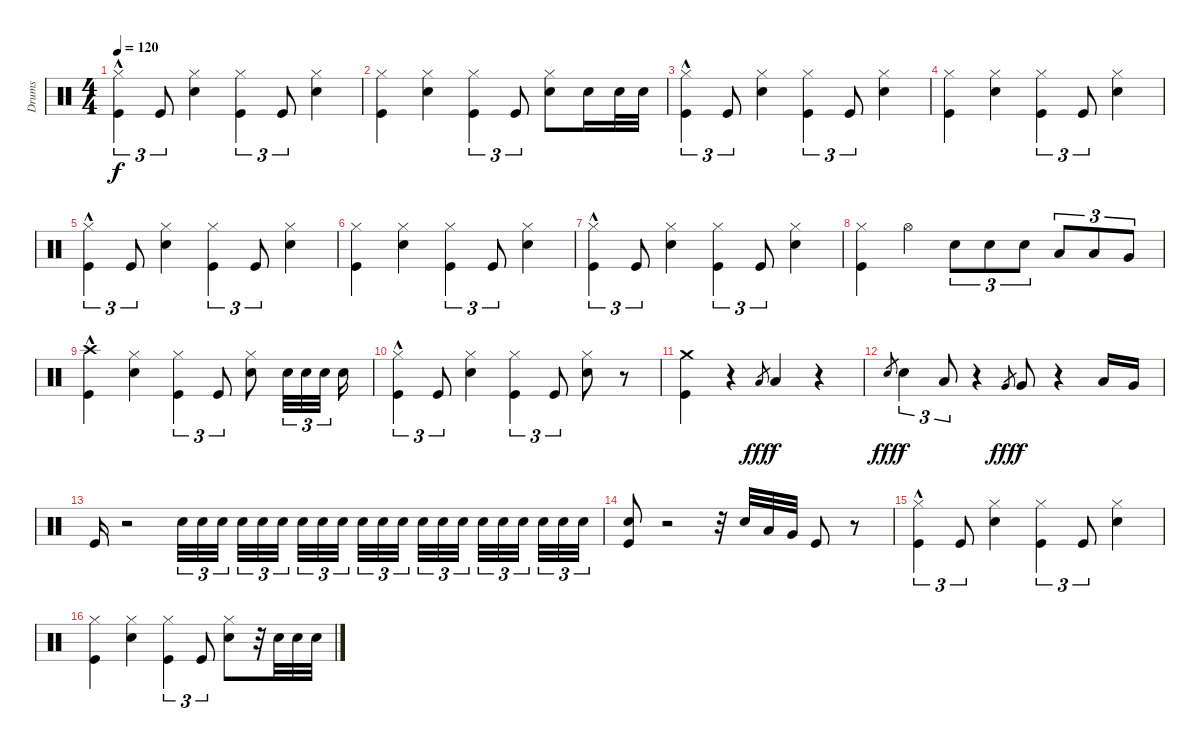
\track ("Drums" "Drums") {instrument percussion}
\staff {score}
\articulation defaults
\ts (4 4)
\tempo 120
\clef neutral
\ks c
("Kick (hit)"{hac} "Hi-Hat (closed)").4{tu (3 2) dy f} "Kick (hit)".8{tu (3 2)} ("Snare (hit) 2" "Hi-Hat (closed)").4 ("Kick (hit)" "Hi-Hat (closed)").4{tu (3 2)} "Kick (hit)".8{tu (3 2)} ("Snare (hit) 2" "Hi-Hat (closed)").4 |
("Kick (hit)" "Hi-Hat (closed)").4 ("Snare (hit) 2" "Hi-Hat (closed)").4 ("Kick (hit)" "Hi-Hat (closed)").4{tu (3 2)} "Kick (hit)".8{tu (3 2)} ("Hi-Hat (closed)" "Snare (hit) 2").8 "Snare (hit) 2".16 "Snare (hit) 2".32 "Snare (hit) 2".32 |
("Kick (hit)"{hac} "Hi-Hat (closed)").4{tu (3 2)} "Kick (hit)".8{tu (3 2)} ("Snare (hit) 2" "Hi-Hat (closed)").4 ("Kick (hit)" "Hi-Hat (closed)").4{tu (3 2)} "Kick (hit)".8{tu (3 2)} ("Snare (hit) 2" "Hi-Hat (closed)").4 |
("Kick (hit)" "Hi-Hat (closed)").4 ("Snare (hit) 2" "Hi-Hat (closed)").4 ("Kick (hit)" "Hi-Hat (closed)").4{tu (3 2)} "Kick (hit)".8{tu (3 2)} ("Snare (hit) 2" "Hi-Hat (closed)").4 |
("Kick (hit)"{hac} "Hi-Hat (closed)").4{tu (3 2)} "Kick (hit)".8{tu (3 2)} ("Snare (hit) 2" "Hi-Hat (closed)").4 ("Kick (hit)" "Hi-Hat (closed)").4{tu (3 2)} "Kick (hit)".8{tu (3 2)} ("Snare (hit) 2" "Hi-Hat (closed)").4 |
("Kick (hit)" "Hi-Hat (closed)").4 ("Snare (hit) 2" "Hi-Hat (closed)").4 ("Kick (hit)" "Hi-Hat (closed)").4{tu (3 2)} "Kick (hit)".8{tu (3 2)} ("Snare (hit) 2" "Hi-Hat (closed)").4 |
("Kick (hit)"{hac} "Hi-Hat (closed)").4{tu (3 2)} "Kick (hit)".8{tu (3 2)} ("Snare (hit) 2" "Hi-Hat (closed)").4 ("Kick (hit)" "Hi-Hat (closed)").4{tu (3 2)} "Kick (hit)".8{tu (3 2)} ("Snare (hit) 2" "Hi-Hat (closed)").4 |
("Kick (hit)" "Hi-Hat (closed)").4 "Hi-Hat (open)".4 "Snare (hit) 2".8{tu (3 2)} "Snare (hit) 2".8{tu (3 2)} "Snare (hit) 2".8{tu (3 2)} "Low Tom (hit)".8{tu (3 2)} "Low Tom (hit)".8{tu (3 2)} "Very Low Tom (hit)".8{tu (3 2)} |
("Kick (hit)"{hac} "Crash high (hit)").4 ("Snare (hit) 2" "Hi-Hat (closed)").4 ("Kick (hit)" "Hi-Hat (closed)").4{tu (3 2)} "Kick (hit)".8{tu (3 2)} ("Snare (hit) 2" "Hi-Hat (closed)").8 "Snare (hit) 2".32{tu (3 2)} "Snare (hit) 2".32{tu (3 2)} "Snare (hit) 2".32{tu (3 2)} "Snare (hit) 2".16 |
("Kick (hit)"{hac} "Hi-Hat (closed)").4{tu (3 2)} "Kick (hit)".8{tu (3 2)} ("Snare (hit) 2" "Hi-Hat (closed)").4 ("Kick (hit)" "Hi-Hat (closed)").4{tu (3 2)} "Kick (hit)".8{tu (3 2)} ("Snare (hit) 2" "Hi-Hat (closed)").8 r.8 |
("Kick (hit)" "Crash medium (hit)").4 r.4 "Low Tom (hit)".8{gr dy fff} "Low Tom (hit)".4{dy f} r.4 |
"Snare (hit) 2".8{gr dy fff} "Snare (hit) 2".4{tu (3 2) dy f} "Low Tom (hit)".8{tu (3 2)} r.4 "Very Low Tom (hit)".8{gr dy fff} "Very Low Tom (hit)".8{dy f} r.4 "Low Tom (hit)".16 "Very Low Tom (hit)".16 |
"Kick (hit)".16 r.2 "Snare (hit) 2".32{tu (3 2)} "Snare (hit) 2".32{tu (3 2)} "Snare (hit) 2".32{tu (3 2)} "Snare (hit) 2".32{tu (3 2)} "Snare (hit) 2".32{tu (3 2)} "Snare (hit) 2".32{tu (3 2)} "Snare (hit) 2".32{tu (3 2)} "Snare (hit) 2".32{tu (3 2)} "Snare (hit) 2".32{tu (3 2)} "Snare (hit) 2".32{tu (3 2)} "Snare (hit) 2".32{tu (3 2)} "Snare (hit) 2".32{tu (3 2)} "Snare (hit) 2".32{tu (3 2)} "Snare (hit) 2".32{tu (3 2)} "Snare (hit) 2".32{tu (3 2)} "Snare (hit) 2".32{tu (3 2)} "Snare (hit) 2".32{tu (3 2)} "Snare (hit) 2".32{tu (3 2)} "Snare (hit) 2".32{tu (3 2)} "Snare (hit) 2".32{tu (3 2)} "Snare (hit) 2".32{tu (3 2)} |
("Kick (hit)" "Snare (hit) 2").8 r.2 r.32 "Snare (hit) 2".32 "Low Tom (hit)".32 "Very Low Tom (hit)".32 "Kick (hit)".8 r.8 |
("Kick (hit)"{hac} "Hi-Hat (closed)").4{tu (3 2)} "Kick (hit)".8{tu (3 2)} ("Snare (hit) 2" "Hi-Hat (closed)").4 ("Kick (hit)" "Hi-Hat (closed)").4{tu (3 2)} "Kick (hit)".8{tu (3 2)} ("Snare (hit) 2" "Hi-Hat (closed)").4 |
("Kick (hit)" "Hi-Hat (closed)").4 ("Snare (hit) 2" "Hi-Hat (closed)").4 ("Kick (hit)" "Hi-Hat (closed)").4{tu (3 2)} "Kick (hit)".8{tu (3 2)} ("Snare (hit) 2" "Hi-Hat (closed)").8 r.32 "Snare (hit) 2".32 "Snare (hit) 2".32 "Snare (hit) 2".32
